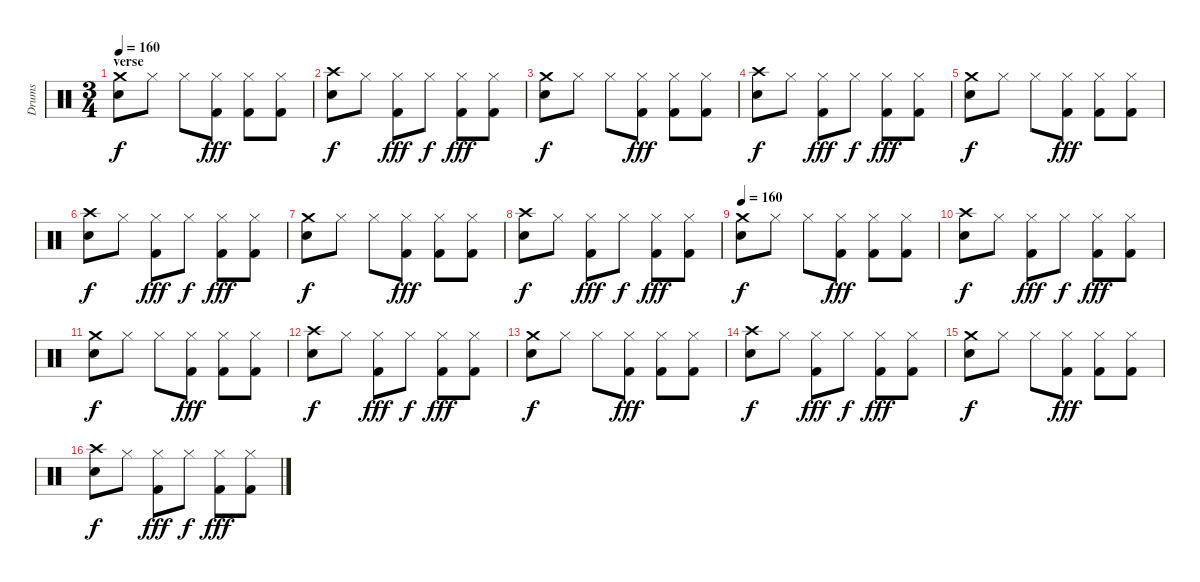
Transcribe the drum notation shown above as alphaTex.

\track ("Drums" "Drums") {instrument percussion}
\staff {score}
\articulation defaults
\ts (3 4)
\section ("" "verse")
\tempo 160
\clef neutral
\ks c
("Electric Snare (hit)" "Crash medium (hit)").8{dy f} "Hi-Hat (closed)".8 "Hi-Hat (closed)".8 ("Hi-Hat (closed)" "Kick (hit) 2").8{dy fff} ("Hi-Hat (closed)" "Kick (hit) 2").8 ("Hi-Hat (closed)" "Kick (hit) 2").8 |
("Crash high (hit)" "Electric Snare (hit)").8{dy f} "Hi-Hat (closed)".8 ("Kick (hit) 2" "Hi-Hat (closed)").8{dy fff} "Hi-Hat (closed)".8{dy f} ("Kick (hit) 2" "Hi-Hat (closed)").8{dy fff} ("Kick (hit) 2" "Hi-Hat (closed)").8 |
("Electric Snare (hit)" "Crash medium (hit)").8{dy f} "Hi-Hat (closed)".8 "Hi-Hat (closed)".8 ("Hi-Hat (closed)" "Kick (hit) 2").8{dy fff} ("Hi-Hat (closed)" "Kick (hit) 2").8 ("Hi-Hat (closed)" "Kick (hit) 2").8 |
("Crash high (hit)" "Electric Snare (hit)").8{dy f} "Hi-Hat (closed)".8 ("Kick (hit) 2" "Hi-Hat (closed)").8{dy fff} "Hi-Hat (closed)".8{dy f} ("Kick (hit) 2" "Hi-Hat (closed)").8{dy fff} ("Kick (hit) 2" "Hi-Hat (closed)").8 |
("Electric Snare (hit)" "Crash medium (hit)").8{dy f} "Hi-Hat (closed)".8 "Hi-Hat (closed)".8 ("Hi-Hat (closed)" "Kick (hit) 2").8{dy fff} ("Hi-Hat (closed)" "Kick (hit) 2").8 ("Hi-Hat (closed)" "Kick (hit) 2").8 |
("Crash high (hit)" "Electric Snare (hit)").8{dy f} "Hi-Hat (closed)".8 ("Kick (hit) 2" "Hi-Hat (closed)").8{dy fff} "Hi-Hat (closed)".8{dy f} ("Kick (hit) 2" "Hi-Hat (closed)").8{dy fff} ("Kick (hit) 2" "Hi-Hat (closed)").8 |
("Electric Snare (hit)" "Crash medium (hit)").8{dy f} "Hi-Hat (closed)".8 "Hi-Hat (closed)".8 ("Hi-Hat (closed)" "Kick (hit) 2").8{dy fff} ("Hi-Hat (closed)" "Kick (hit) 2").8 ("Hi-Hat (closed)" "Kick (hit) 2").8 |
("Crash high (hit)" "Electric Snare (hit)").8{dy f} "Hi-Hat (closed)".8 ("Kick (hit) 2" "Hi-Hat (closed)").8{dy fff} "Hi-Hat (closed)".8{dy f} ("Kick (hit) 2" "Hi-Hat (closed)").8{dy fff} ("Kick (hit) 2" "Hi-Hat (closed)").8 |
\tempo 160
("Electric Snare (hit)" "Crash medium (hit)").8{dy f} "Hi-Hat (closed)".8 "Hi-Hat (closed)".8 ("Hi-Hat (closed)" "Kick (hit) 2").8{dy fff} ("Hi-Hat (closed)" "Kick (hit) 2").8 ("Hi-Hat (closed)" "Kick (hit) 2").8 |
("Crash high (hit)" "Electric Snare (hit)").8{dy f} "Hi-Hat (closed)".8 ("Kick (hit) 2" "Hi-Hat (closed)").8{dy fff} "Hi-Hat (closed)".8{dy f} ("Kick (hit) 2" "Hi-Hat (closed)").8{dy fff} ("Kick (hit) 2" "Hi-Hat (closed)").8 |
("Electric Snare (hit)" "Crash medium (hit)").8{dy f} "Hi-Hat (closed)".8 "Hi-Hat (closed)".8 ("Hi-Hat (closed)" "Kick (hit) 2").8{dy fff} ("Hi-Hat (closed)" "Kick (hit) 2").8 ("Hi-Hat (closed)" "Kick (hit) 2").8 |
("Crash high (hit)" "Electric Snare (hit)").8{dy f} "Hi-Hat (closed)".8 ("Kick (hit) 2" "Hi-Hat (closed)").8{dy fff} "Hi-Hat (closed)".8{dy f} ("Kick (hit) 2" "Hi-Hat (closed)").8{dy fff} ("Kick (hit) 2" "Hi-Hat (closed)").8 |
("Electric Snare (hit)" "Crash medium (hit)").8{dy f} "Hi-Hat (closed)".8 "Hi-Hat (closed)".8 ("Hi-Hat (closed)" "Kick (hit) 2").8{dy fff} ("Hi-Hat (closed)" "Kick (hit) 2").8 ("Hi-Hat (closed)" "Kick (hit) 2").8 |
("Crash high (hit)" "Electric Snare (hit)").8{dy f} "Hi-Hat (closed)".8 ("Kick (hit) 2" "Hi-Hat (closed)").8{dy fff} "Hi-Hat (closed)".8{dy f} ("Kick (hit) 2" "Hi-Hat (closed)").8{dy fff} ("Kick (hit) 2" "Hi-Hat (closed)").8 |
("Electric Snare (hit)" "Crash medium (hit)").8{dy f} "Hi-Hat (closed)".8 "Hi-Hat (closed)".8 ("Hi-Hat (closed)" "Kick (hit) 2").8{dy fff} ("Hi-Hat (closed)" "Kick (hit) 2").8 ("Hi-Hat (closed)" "Kick (hit) 2").8 |
("Crash high (hit)" "Electric Snare (hit)").8{dy f} "Hi-Hat (closed)".8 ("Kick (hit) 2" "Hi-Hat (closed)").8{dy fff} "Hi-Hat (closed)".8{dy f} ("Kick (hit) 2" "Hi-Hat (closed)").8{dy fff} ("Kick (hit) 2" "Hi-Hat (closed)").8
